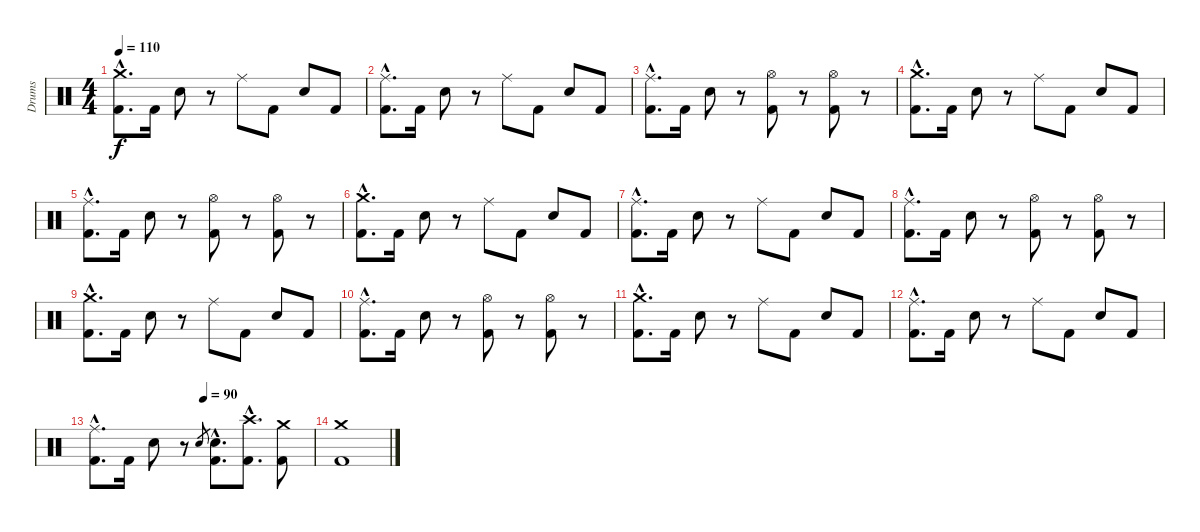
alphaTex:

\track ("Drums" "Drums") {instrument percussion}
\staff {score}
\articulation defaults
\ts (4 4)
\tempo 110
\clef neutral
\ks c
("Crash medium (hit)"{hac} "Kick (hit) 2"{hac}).8{d dy f} "Kick (hit) 2".16 "Electric Snare (hit)".8 r.8 "Ride (middle)".8 "Kick (hit) 2".8 "Electric Snare (hit)".8 "Kick (hit) 2".8 |
("Ride (middle)"{hac} "Kick (hit) 2"{hac}).8{d} "Kick (hit) 2".16 "Electric Snare (hit)".8 r.8 "Ride (middle)".8 "Kick (hit) 2".8 "Electric Snare (hit)".8 "Kick (hit) 2".8 |
("Ride (middle)"{hac} "Kick (hit) 2"{hac}).8{d} "Kick (hit) 2".16 "Electric Snare (hit)".8 r.8 ("Hi-Hat (open)" "Kick (hit) 2").8 r.8 ("Hi-Hat (open)" "Kick (hit) 2").8 r.8 |
("Crash medium (hit)"{hac} "Kick (hit) 2"{hac}).8{d} "Kick (hit) 2".16 "Electric Snare (hit)".8 r.8 "Ride (middle)".8 "Kick (hit) 2".8 "Electric Snare (hit)".8 "Kick (hit) 2".8 |
("Ride (middle)"{hac} "Kick (hit) 2"{hac}).8{d} "Kick (hit) 2".16 "Electric Snare (hit)".8 r.8 ("Hi-Hat (open)" "Kick (hit) 2").8 r.8 ("Hi-Hat (open)" "Kick (hit) 2").8 r.8 |
("Crash medium (hit)"{hac} "Kick (hit) 2"{hac}).8{d} "Kick (hit) 2".16 "Electric Snare (hit)".8 r.8 "Ride (middle)".8 "Kick (hit) 2".8 "Electric Snare (hit)".8 "Kick (hit) 2".8 |
("Ride (middle)"{hac} "Kick (hit) 2"{hac}).8{d} "Kick (hit) 2".16 "Electric Snare (hit)".8 r.8 "Ride (middle)".8 "Kick (hit) 2".8 "Electric Snare (hit)".8 "Kick (hit) 2".8 |
("Ride (middle)"{hac} "Kick (hit) 2"{hac}).8{d} "Kick (hit) 2".16 "Electric Snare (hit)".8 r.8 ("Hi-Hat (open)" "Kick (hit) 2").8 r.8 ("Hi-Hat (open)" "Kick (hit) 2").8 r.8 |
("Crash medium (hit)"{hac} "Kick (hit) 2"{hac}).8{d} "Kick (hit) 2".16 "Electric Snare (hit)".8 r.8 "Ride (middle)".8 "Kick (hit) 2".8 "Electric Snare (hit)".8 "Kick (hit) 2".8 |
("Ride (middle)"{hac} "Kick (hit) 2"{hac}).8{d} "Kick (hit) 2".16 "Electric Snare (hit)".8 r.8 ("Hi-Hat (open)" "Kick (hit) 2").8 r.8 ("Hi-Hat (open)" "Kick (hit) 2").8 r.8 |
("Crash medium (hit)"{hac} "Kick (hit) 2"{hac}).8{d} "Kick (hit) 2".16 "Electric Snare (hit)".8 r.8 "Ride (middle)".8 "Kick (hit) 2".8 "Electric Snare (hit)".8 "Kick (hit) 2".8 |
("Ride (middle)"{hac} "Kick (hit) 2"{hac}).8{d} "Kick (hit) 2".16 "Electric Snare (hit)".8 r.8 "Ride (middle)".8 "Kick (hit) 2".8 "Electric Snare (hit)".8 "Kick (hit) 2".8 |
\tempo (90 0.5)
("Ride (middle)"{hac} "Kick (hit) 2"{hac}).8{d} "Kick (hit) 2".16 "Electric Snare (hit)".8 r.8 "Electric Snare (hit)".8{gr} ("Electric Snare (hit)"{hac} "Kick (hit) 2"{hac}).8{d} ("Crash high (hit)"{hac} "Kick (hit) 2"{hac}).8{d} ("Crash medium (hit)" "Kick (hit) 2").8 |
("Crash medium (hit)" "Kick (hit) 2").1
